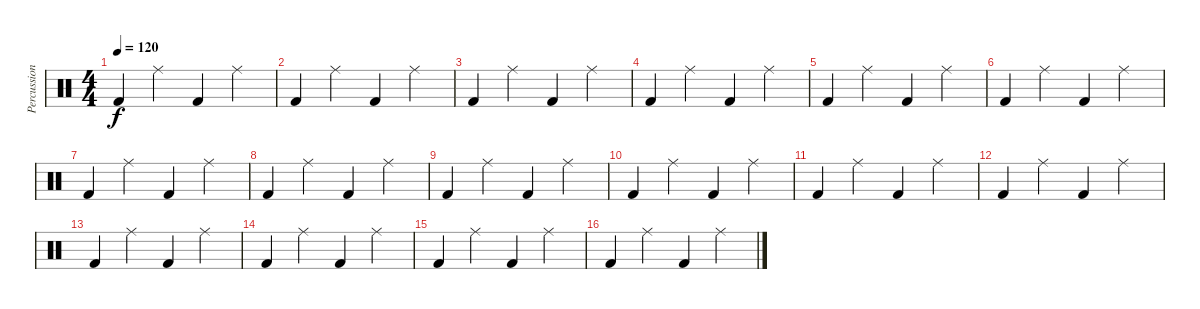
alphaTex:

\track ("Percussions" "Percussion") {instrument percussion}
\staff {score}
\articulation defaults
\ts (4 4)
\tempo 120
\clef neutral
\ks c "Kick (hit) 2".4{dy f} "Ride (middle)".4 "Kick (hit) 2".4 "Ride (middle)".4
|
"Kick (hit) 2".4 "Ride (middle)".4 "Kick (hit) 2".4 "Ride (middle)".4 |
"Kick (hit) 2".4 "Ride (middle)".4 "Kick (hit) 2".4 "Ride (middle)".4 |
"Kick (hit) 2".4 "Ride (middle)".4 "Kick (hit) 2".4 "Ride (middle)".4 |
"Kick (hit) 2".4 "Ride (middle)".4 "Kick (hit) 2".4 "Ride (middle)".4 |
"Kick (hit) 2".4 "Ride (middle)".4 "Kick (hit) 2".4 "Ride (middle)".4 |
"Kick (hit) 2".4 "Ride (middle)".4 "Kick (hit) 2".4 "Ride (middle)".4 |
"Kick (hit) 2".4 "Ride (middle)".4 "Kick (hit) 2".4 "Ride (middle)".4 |
"Kick (hit) 2".4 "Ride (middle)".4 "Kick (hit) 2".4 "Ride (middle)".4 |
"Kick (hit) 2".4 "Ride (middle)".4 "Kick (hit) 2".4 "Ride (middle)".4 |
"Kick (hit) 2".4 "Ride (middle)".4 "Kick (hit) 2".4 "Ride (middle)".4 |
"Kick (hit) 2".4 "Ride (middle)".4 "Kick (hit) 2".4 "Ride (middle)".4 |
"Kick (hit) 2".4 "Ride (middle)".4 "Kick (hit) 2".4 "Ride (middle)".4 |
"Kick (hit) 2".4 "Ride (middle)".4 "Kick (hit) 2".4 "Ride (middle)".4 |
"Kick (hit) 2".4 "Ride (middle)".4 "Kick (hit) 2".4 "Ride (middle)".4 |
"Kick (hit) 2".4 "Ride (middle)".4 "Kick (hit) 2".4 "Ride (middle)".4
